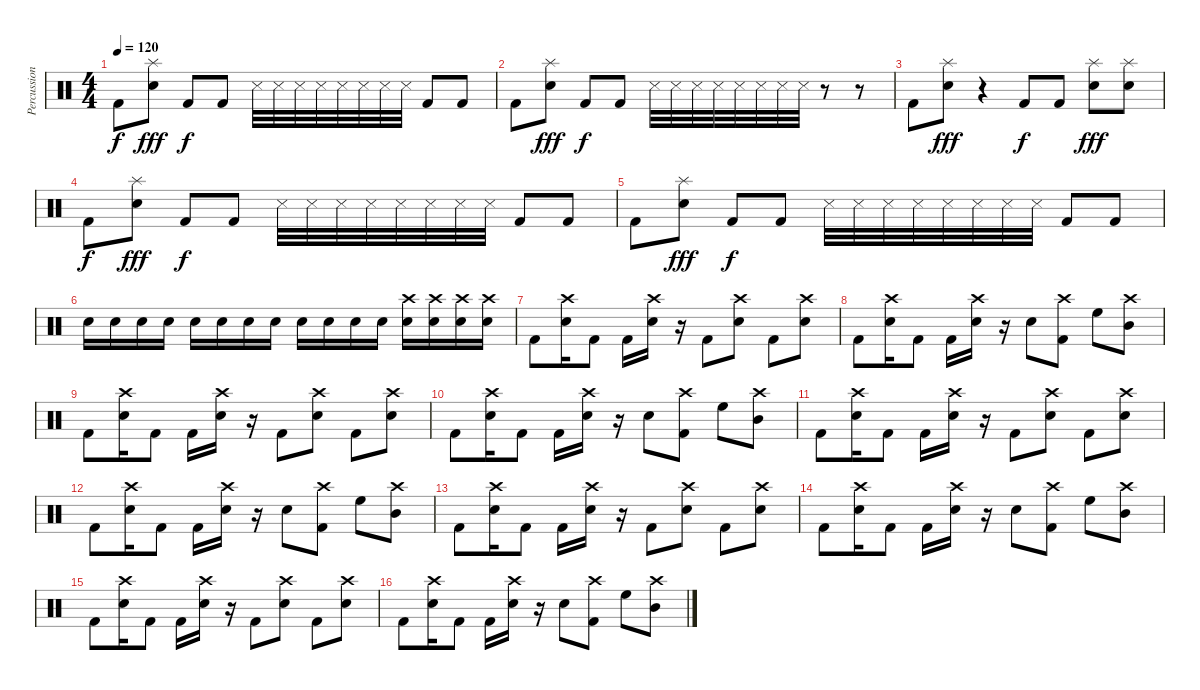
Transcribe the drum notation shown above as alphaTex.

\track ("Percussion" "Percussion") {instrument percussion}
\staff {score}
\articulation defaults
\ts (4 4)
\tempo 120
\clef neutral
\ks c "Kick (hit) 2".8{dy f}
("Splash (hit)" "Electric Snare (hit)").8{dy fff} "Kick (hit) 2".8{dy f} "Kick (hit) 2".8 "Snare (side stick) 3".32 "Snare (side stick) 3".32 "Snare (side stick) 3".32 "Snare (side stick) 3".32 "Snare (side stick) 3".32 "Snare (side stick) 3".32 "Snare (side stick) 3".32 "Snare (side stick) 3".32 "Kick (hit) 2".8 "Kick (hit) 2".8 |
"Kick (hit) 2".8 ("Splash (hit)" "Electric Snare (hit)").8{dy fff} "Kick (hit) 2".8{dy f} "Kick (hit) 2".8 "Snare (side stick) 3".32 "Snare (side stick) 3".32 "Snare (side stick) 3".32 "Snare (side stick) 3".32 "Snare (side stick) 3".32 "Snare (side stick) 3".32 "Snare (side stick) 3".32 "Snare (side stick) 3".32 r.8 r.8 |
"Kick (hit) 2".8 ("Splash (hit)" "Electric Snare (hit)").8{dy fff} r.4 "Kick (hit) 2".8{dy f} "Kick (hit) 2".8 ("Splash (hit)" "Electric Snare (hit)").8{dy fff} ("Splash (hit)" "Electric Snare (hit)").8 |
"Kick (hit) 2".8{dy f} ("Splash (hit)" "Electric Snare (hit)").8{dy fff} "Kick (hit) 2".8{dy f} "Kick (hit) 2".8 "Snare (side stick) 3".32 "Snare (side stick) 3".32 "Snare (side stick) 3".32 "Snare (side stick) 3".32 "Snare (side stick) 3".32 "Snare (side stick) 3".32 "Snare (side stick) 3".32 "Snare (side stick) 3".32 "Kick (hit) 2".8 "Kick (hit) 2".8 |
"Kick (hit) 2".8 ("Splash (hit)" "Electric Snare (hit)").8{dy fff} "Kick (hit) 2".8{dy f} "Kick (hit) 2".8 "Snare (side stick) 3".32 "Snare (side stick) 3".32 "Snare (side stick) 3".32 "Snare (side stick) 3".32 "Snare (side stick) 3".32 "Snare (side stick) 3".32 "Snare (side stick) 3".32 "Snare (side stick) 3".32 "Kick (hit) 2".8 "Kick (hit) 2".8 |
"Electric Snare (hit)".16 "Electric Snare (hit)".16 "Electric Snare (hit)".16 "Electric Snare (hit)".16 "Electric Snare (hit)".16 "Electric Snare (hit)".16 "Electric Snare (hit)".16 "Electric Snare (hit)".16 "Electric Snare (hit)".16 "Electric Snare (hit)".16 "Electric Snare (hit)".16 "Electric Snare (hit)".16 ("Crash high (hit)" "Electric Snare (hit)").16 ("Crash high (hit)" "Electric Snare (hit)").16 ("Crash high (hit)" "Electric Snare (hit)").16 ("Crash high (hit)" "Electric Snare (hit)").16 |
"Kick (hit) 2".8 ("Crash high (hit)" "Electric Snare (hit)").16 "Kick (hit) 2".8 "Kick (hit) 2".16 ("Crash high (hit)" "Electric Snare (hit)").16 r.16 "Kick (hit) 2".8 ("Crash high (hit)" "Electric Snare (hit)").8 "Kick (hit) 2".8 ("Crash high (hit)" "Electric Snare (hit)").8 |
"Kick (hit) 2".8 ("Crash high (hit)" "Electric Snare (hit)").16 "Kick (hit) 2".8 "Kick (hit) 2".16 ("Crash high (hit)" "Electric Snare (hit)").16 r.16 "Electric Snare (hit)".8 ("Crash high (hit)" "Kick (hit) 2").8 "High Floor Tom (hit)".8 ("Crash high (hit)" "Mid Tom (hit)").8 |
"Kick (hit) 2".8 ("Crash high (hit)" "Electric Snare (hit)").16 "Kick (hit) 2".8 "Kick (hit) 2".16 ("Crash high (hit)" "Electric Snare (hit)").16 r.16 "Kick (hit) 2".8 ("Crash high (hit)" "Electric Snare (hit)").8 "Kick (hit) 2".8 ("Crash high (hit)" "Electric Snare (hit)").8 |
"Kick (hit) 2".8 ("Crash high (hit)" "Electric Snare (hit)").16 "Kick (hit) 2".8 "Kick (hit) 2".16 ("Crash high (hit)" "Electric Snare (hit)").16 r.16 "Electric Snare (hit)".8 ("Crash high (hit)" "Kick (hit) 2").8 "High Floor Tom (hit)".8 ("Crash high (hit)" "Mid Tom (hit)").8 |
"Kick (hit) 2".8 ("Crash high (hit)" "Electric Snare (hit)").16 "Kick (hit) 2".8 "Kick (hit) 2".16 ("Crash high (hit)" "Electric Snare (hit)").16 r.16 "Kick (hit) 2".8 ("Crash high (hit)" "Electric Snare (hit)").8 "Kick (hit) 2".8 ("Crash high (hit)" "Electric Snare (hit)").8 |
"Kick (hit) 2".8 ("Crash high (hit)" "Electric Snare (hit)").16 "Kick (hit) 2".8 "Kick (hit) 2".16 ("Crash high (hit)" "Electric Snare (hit)").16 r.16 "Electric Snare (hit)".8 ("Crash high (hit)" "Kick (hit) 2").8 "High Floor Tom (hit)".8 ("Crash high (hit)" "Mid Tom (hit)").8 |
"Kick (hit) 2".8 ("Crash high (hit)" "Electric Snare (hit)").16 "Kick (hit) 2".8 "Kick (hit) 2".16 ("Crash high (hit)" "Electric Snare (hit)").16 r.16 "Kick (hit) 2".8 ("Crash high (hit)" "Electric Snare (hit)").8 "Kick (hit) 2".8 ("Crash high (hit)" "Electric Snare (hit)").8 |
"Kick (hit) 2".8 ("Crash high (hit)" "Electric Snare (hit)").16 "Kick (hit) 2".8 "Kick (hit) 2".16 ("Crash high (hit)" "Electric Snare (hit)").16 r.16 "Electric Snare (hit)".8 ("Crash high (hit)" "Kick (hit) 2").8 "High Floor Tom (hit)".8 ("Crash high (hit)" "Mid Tom (hit)").8 |
"Kick (hit) 2".8 ("Crash high (hit)" "Electric Snare (hit)").16 "Kick (hit) 2".8 "Kick (hit) 2".16 ("Crash high (hit)" "Electric Snare (hit)").16 r.16 "Kick (hit) 2".8 ("Crash high (hit)" "Electric Snare (hit)").8 "Kick (hit) 2".8 ("Crash high (hit)" "Electric Snare (hit)").8 |
"Kick (hit) 2".8 ("Crash high (hit)" "Electric Snare (hit)").16 "Kick (hit) 2".8 "Kick (hit) 2".16 ("Crash high (hit)" "Electric Snare (hit)").16 r.16 "Electric Snare (hit)".8 ("Crash high (hit)" "Kick (hit) 2").8 "High Floor Tom (hit)".8 ("Crash high (hit)" "Mid Tom (hit)").8
